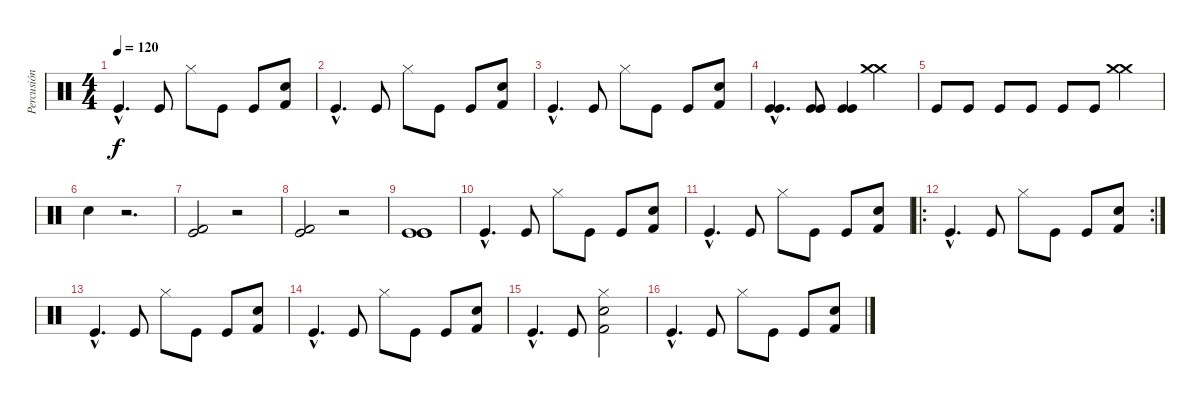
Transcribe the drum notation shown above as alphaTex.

\track ("Percusión" "Percusión") {instrument percussion}
\staff {score}
\articulation defaults
\ts (4 4)
\tempo 120
\clef neutral
\ks c "Kick (hit)"{hac}.4{d dy f} "Kick (hit)".8 "Hi-Hat (closed)".8 "Kick (hit)".8 "Kick (hit)".8
("Snare (hit) 2" "Kick (hit) 2").8 |
"Kick (hit)"{hac}.4{d} "Kick (hit)".8 "Hi-Hat (closed)".8 "Kick (hit)".8 "Kick (hit)".8 ("Snare (hit) 2" "Kick (hit) 2").8 |
"Kick (hit)"{hac}.4{d} "Kick (hit)".8 "Hi-Hat (closed)".8 "Kick (hit)".8 "Kick (hit)".8 ("Snare (hit) 2" "Kick (hit) 2").8 |
("Kick (hit)"{hac} "Kick (hit)"{hac}).4{d} ("Kick (hit)" "Kick (hit)").8 ("Kick (hit)" "Kick (hit)").4 ("Crash medium (hit)" "Crash medium (hit)").4 |
"Kick (hit)".8 "Kick (hit)".8 "Kick (hit)".8 "Kick (hit)".8 "Kick (hit)".8 "Kick (hit)".8 ("Crash medium (hit)" "Crash medium (hit)").4 |
"Snare (hit) 2".4 r.2{d} |
("Kick (hit)" "Kick (hit) 2").2 r.2 |
("Kick (hit)" "Kick (hit) 2").2 r.2 |
("Kick (hit)" "Kick (hit)" "Kick (hit)").1 |
"Kick (hit)"{hac}.4{d} "Kick (hit)".8 "Hi-Hat (closed)".8 "Kick (hit)".8 "Kick (hit)".8 ("Snare (hit) 2" "Kick (hit) 2").8 |
"Kick (hit)"{hac}.4{d} "Kick (hit)".8 "Hi-Hat (closed)".8 "Kick (hit)".8 "Kick (hit)".8 ("Snare (hit) 2" "Kick (hit) 2").8 |
\ro
\rc 2 "Kick (hit)"{hac}.4{d} "Kick (hit)".8 "Hi-Hat (closed)".8 "Kick (hit)".8 "Kick (hit)".8
("Snare (hit) 2" "Kick (hit) 2").8 |
"Kick (hit)"{hac}.4{d} "Kick (hit)".8 "Hi-Hat (closed)".8 "Kick (hit)".8 "Kick (hit)".8 ("Snare (hit) 2" "Kick (hit) 2").8 |
"Kick (hit)"{hac}.4{d} "Kick (hit)".8 "Hi-Hat (closed)".8 "Kick (hit)".8 "Kick (hit)".8 ("Snare (hit) 2" "Kick (hit) 2").8 |
"Kick (hit)"{hac}.4{d} "Kick (hit)".8 ("Kick (hit) 2" "Snare (hit) 2" "Hi-Hat (closed)").2 |
"Kick (hit)"{hac}.4{d} "Kick (hit)".8 "Hi-Hat (closed)".8 "Kick (hit)".8 "Kick (hit)".8 ("Snare (hit) 2" "Kick (hit) 2").8
